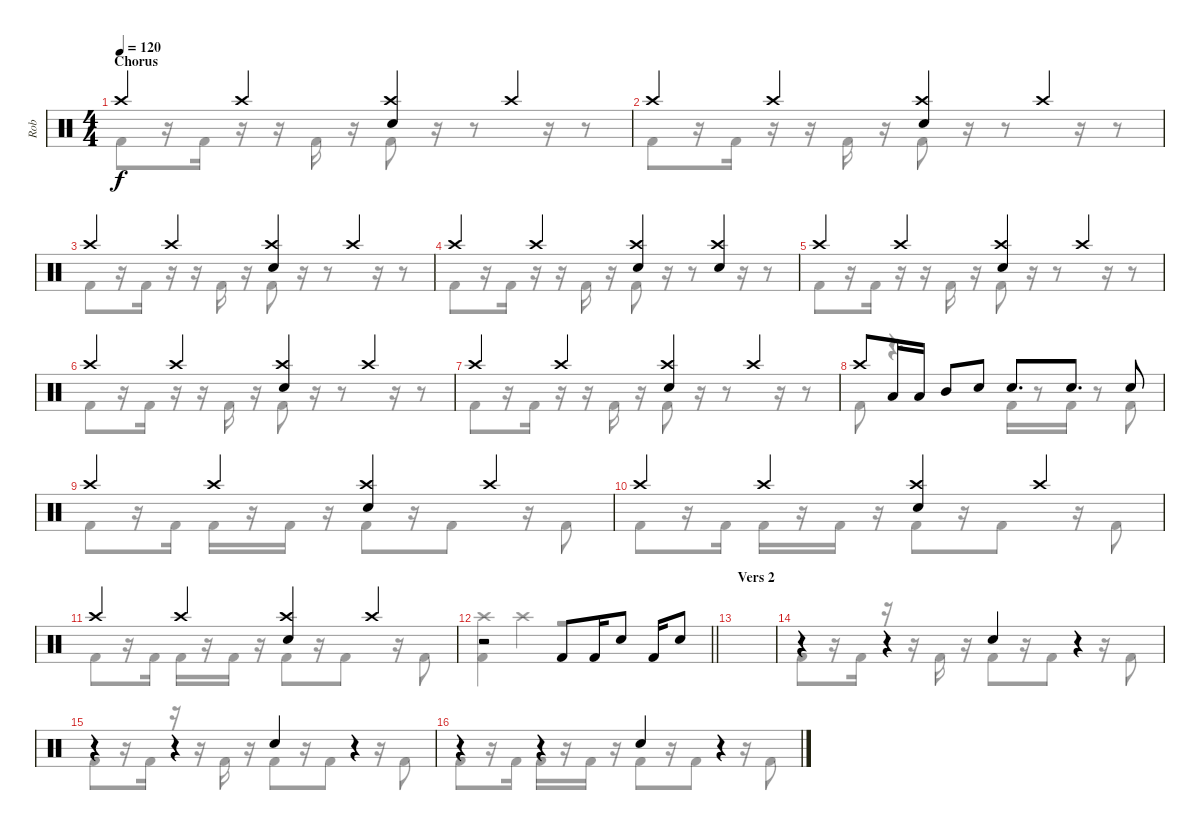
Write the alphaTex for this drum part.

\track ("Rob" "Rob") {instrument percussion}
\staff {score}
\articulation defaults
\voice
\ts (4 4)
\section ("" "Chorus")
\tempo 120
\clef neutral
\ks c "Crash high (hit)".4{dy f} "Crash high (hit)".4
("Crash high (hit)" "Snare (hit) 2").4 "Crash high (hit)".4 |
"Crash high (hit)".4 "Crash high (hit)".4 ("Crash high (hit)" "Snare (hit) 2").4 "Crash high (hit)".4 |
"Crash high (hit)".4 "Crash high (hit)".4 ("Crash high (hit)" "Snare (hit) 2").4 "Crash high (hit)".4 |
"Crash high (hit)".4 "Crash high (hit)".4 ("Crash high (hit)" "Snare (hit) 2").4 ("Crash high (hit)" "Snare (hit) 2").4 |
"Crash high (hit)".4 "Crash high (hit)".4 ("Crash high (hit)" "Snare (hit) 2").4 "Crash high (hit)".4 |
"Crash high (hit)".4 "Crash high (hit)".4 ("Crash high (hit)" "Snare (hit) 2").4 "Crash high (hit)".4 |
"Crash high (hit)".4 "Crash high (hit)".4 ("Crash high (hit)" "Snare (hit) 2").4 "Crash high (hit)".4 |
"Crash high (hit)".8 "Low Floor Tom (hit)".16 "Low Tom (hit)".16 "Mid Tom (hit)".8 "Snare (hit) 2".8 "Snare (hit) 2".8{d} "Snare (hit) 2".8{d} "Snare (hit) 2".8 |
"Crash high (hit)".4 "Crash high (hit)".4 ("Crash high (hit)" "Snare (hit) 2").4 "Crash high (hit)".4 |
"Crash high (hit)".4 "Crash high (hit)".4 ("Crash high (hit)" "Snare (hit) 2").4 "Crash high (hit)".4 |
"Crash high (hit)".4 "Crash high (hit)".4 ("Crash high (hit)" "Snare (hit) 2").4 "Crash high (hit)".4 |
\barLineRight lightlight
r.2 "Kick (hit) 2".8 "Kick (hit) 2".16 "Snare (hit) 2".8 "Kick (hit) 2".16 "Snare (hit) 2".8 |
\section ("" "Vers 2")
|
r.4 r.4 "Snare (hit) 2".4 r.4 |
r.4 r.4 "Snare (hit) 2".4 r.4 |
r.4 r.4 "Snare (hit) 2".4 r.4
\voice
\clef neutral
\ottava regular
\simile none
\ks c "Kick (hit) 2".8{dy f}
r.16 "Kick (hit) 2".16 r.16 r.16 "Kick (hit) 2".16 r.16 "Kick (hit) 2".8 r.16 r.8 r.16 r.8 |
"Kick (hit) 2".8 r.16 "Kick (hit) 2".16 r.16 r.16 "Kick (hit) 2".16 r.16 "Kick (hit) 2".8 r.16 r.8 r.16 r.8 |
"Kick (hit) 2".8 r.16 "Kick (hit) 2".16 r.16 r.16 "Kick (hit) 2".16 r.16 "Kick (hit) 2".8 r.16 r.8 r.16 r.8 |
"Kick (hit) 2".8 r.16 "Kick (hit) 2".16 r.16 r.16 "Kick (hit) 2".16 r.16 "Kick (hit) 2".8 r.16 r.8 r.16 r.8 |
"Kick (hit) 2".8 r.16 "Kick (hit) 2".16 r.16 r.16 "Kick (hit) 2".16 r.16 "Kick (hit) 2".8 r.16 r.8 r.16 r.8 |
"Kick (hit) 2".8 r.16 "Kick (hit) 2".16 r.16 r.16 "Kick (hit) 2".16 r.16 "Kick (hit) 2".8 r.16 r.8 r.16 r.8 |
"Kick (hit) 2".8 r.16 "Kick (hit) 2".16 r.16 r.16 "Kick (hit) 2".16 r.16 "Kick (hit) 2".8 r.16 r.8 r.16 r.8 |
"Kick (hit) 2".8 r.4{d} "Kick (hit) 2".16 r.8 "Kick (hit) 2".16 r.8 "Kick (hit) 2".8 |
"Kick (hit) 2".8 r.16 "Kick (hit) 2".16 "Kick (hit) 2".16 r.16 "Kick (hit) 2".16 r.16 "Kick (hit) 2".8 r.16 "Kick (hit) 2".8 r.16 "Kick (hit) 2".8 |
"Kick (hit) 2".8 r.16 "Kick (hit) 2".16 "Kick (hit) 2".16 r.16 "Kick (hit) 2".16 r.16 "Kick (hit) 2".8 r.16 "Kick (hit) 2".8 r.16 "Kick (hit) 2".8 |
"Kick (hit) 2".8 r.16 "Kick (hit) 2".16 "Kick (hit) 2".16 r.16 "Kick (hit) 2".16 r.16 "Kick (hit) 2".8 r.16 "Kick (hit) 2".8 r.16 "Kick (hit) 2".8 |
\barLineRight lightlight
("Crash high (hit)" "Kick (hit) 2").4 "Crash high (hit)".4 r.2 |
|
"Kick (hit) 2".8 r.16 "Kick (hit) 2".16 r.16 r.16 "Kick (hit) 2".16 r.16 "Kick (hit) 2".8 r.16 "Kick (hit) 2".8 r.16 "Kick (hit) 2".8 |
"Kick (hit) 2".8 r.16 "Kick (hit) 2".16 r.16 r.16 "Kick (hit) 2".16 r.16 "Kick (hit) 2".8 r.16 "Kick (hit) 2".8 r.16 "Kick (hit) 2".8 |
"Kick (hit) 2".8 r.16 "Kick (hit) 2".16 "Kick (hit) 2".16 r.16 "Kick (hit) 2".16 r.16 "Kick (hit) 2".8 r.16 "Kick (hit) 2".8 r.16 "Kick (hit) 2".8
